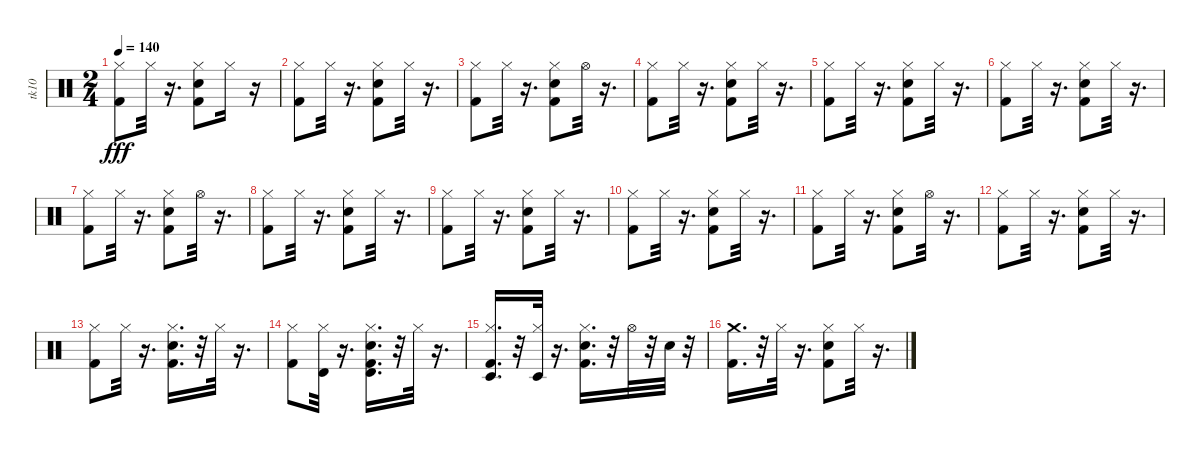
\track ("tk10" "tk10") {instrument percussion}
\staff {score}
\articulation defaults
\ts (2 4)
\tempo 140
\clef neutral
\ks c
("Kick (hit) 2" "Hi-Hat (closed)").8{dy fff} "Hi-Hat (closed)".32 r.16{d} ("Kick (hit) 2" "Hi-Hat (closed)" "Snare (hit) 2").8 "Hi-Hat (closed)".16 r.16 |
("Kick (hit) 2" "Hi-Hat (closed)").8 "Hi-Hat (closed)".32 r.16{d} ("Hi-Hat (closed)" "Snare (hit) 2" "Kick (hit) 2").8 "Hi-Hat (closed)".32 r.16{d} |
("Kick (hit) 2" "Hi-Hat (closed)").8 "Hi-Hat (closed)".32 r.16{d} ("Snare (hit) 2" "Hi-Hat (closed)" "Kick (hit) 2").8 "Hi-Hat (open)".32 r.16{d} |
("Kick (hit) 2" "Hi-Hat (closed)").8 "Hi-Hat (closed)".32 r.16{d} ("Snare (hit) 2" "Kick (hit) 2" "Hi-Hat (closed)").8 "Hi-Hat (closed)".32 r.16{d} |
("Kick (hit) 2" "Hi-Hat (closed)").8 "Hi-Hat (closed)".32 r.16{d} ("Snare (hit) 2" "Kick (hit) 2" "Hi-Hat (closed)").8 "Hi-Hat (closed)".32 r.16{d} |
("Kick (hit) 2" "Hi-Hat (closed)").8 "Hi-Hat (closed)".32 r.16{d} ("Snare (hit) 2" "Kick (hit) 2" "Hi-Hat (closed)").8 "Hi-Hat (closed)".32 r.16{d} |
("Kick (hit) 2" "Hi-Hat (closed)").8 "Hi-Hat (closed)".32 r.16{d} ("Kick (hit) 2" "Snare (hit) 2" "Hi-Hat (closed)").8 "Hi-Hat (open)".32 r.16{d} |
("Kick (hit) 2" "Hi-Hat (closed)").8 "Hi-Hat (closed)".32 r.16{d} ("Snare (hit) 2" "Kick (hit) 2" "Hi-Hat (closed)").8 "Hi-Hat (closed)".32 r.16{d} |
("Kick (hit) 2" "Hi-Hat (closed)").8 "Hi-Hat (closed)".32 r.16{d} ("Snare (hit) 2" "Kick (hit) 2" "Hi-Hat (closed)").8 "Hi-Hat (closed)".32 r.16{d} |
("Kick (hit) 2" "Hi-Hat (closed)").8 "Hi-Hat (closed)".32 r.16{d} ("Snare (hit) 2" "Kick (hit) 2" "Hi-Hat (closed)").8 "Hi-Hat (closed)".32 r.16{d} |
("Kick (hit) 2" "Hi-Hat (closed)").8 "Hi-Hat (closed)".32 r.16{d} ("Snare (hit) 2" "Kick (hit) 2" "Hi-Hat (closed)").8 "Hi-Hat (open)".32 r.16{d} |
("Kick (hit) 2" "Hi-Hat (closed)").8 "Hi-Hat (closed)".32 r.16{d} ("Kick (hit) 2" "Hi-Hat (closed)" "Snare (hit) 2").8 "Hi-Hat (closed)".32 r.16{d} |
("Kick (hit) 2" "Hi-Hat (closed)").8 "Hi-Hat (closed)".32 r.16{d} ("Snare (hit) 2" "Kick (hit) 2" "Hi-Hat (closed)").16{d} r.32 "Hi-Hat (closed)".32 r.16{d} |
("Kick (hit) 2" "Hi-Hat (closed)").8 ("Timbale high (hit)" "Hi-Hat (closed)").32 r.16{d} ("Kick (hit) 2" "Timbale high (hit)" "Snare (hit) 2" "Hi-Hat (closed)").16{d} r.32 "Hi-Hat (closed)".32 r.16{d} |
("Timbale low (hit)" "Hi-Hat (closed)" "Kick (hit) 2").16{d} r.32 ("Timbale low (hit)" "Hi-Hat (closed)").32 r.16{d} ("Hi-Hat (closed)" "Snare (hit) 2" "Kick (hit) 2").16{d} r.32 "Hi-Hat (open)".32 r.32 "Snare (hit) 2".32 r.32 |
("Kick (hit) 2" "Crash medium (hit)").16{d} r.32 "Hi-Hat (closed)".32 r.16{d} ("Snare (hit) 2" "Hi-Hat (closed)" "Kick (hit) 2").8 "Hi-Hat (closed)".32 r.16{d}
